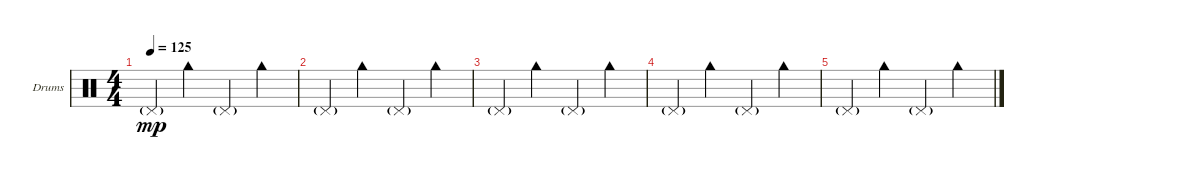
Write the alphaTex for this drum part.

\defaultSystemsLayout 4
\bracketExtendMode groupsimilarinstruments
\firstSystemTrackNameOrientation horizontal
\otherSystemsTrackNameOrientation horizontal
\track ("Drumkit" "Drums") {instrument percussion}
\staff {score}
\articulation defaults
\ts (4 4)
\tempo 125
\clef neutral
\ks c "Pedal Hi-Hat (hit)"{g}.4{dy mp} "Cowbell high (hit)".4 "Pedal Hi-Hat (hit)"{g}.4 "Cowbell high (hit)".4
|
"Pedal Hi-Hat (hit)"{g}.4 "Cowbell high (hit)".4 "Pedal Hi-Hat (hit)"{g}.4 "Cowbell high (hit)".4 |
"Pedal Hi-Hat (hit)"{g}.4 "Cowbell high (hit)".4 "Pedal Hi-Hat (hit)"{g}.4 "Cowbell high (hit)".4 |
"Pedal Hi-Hat (hit)"{g}.4 "Cowbell high (hit)".4 "Pedal Hi-Hat (hit)"{g}.4 "Cowbell high (hit)".4 |
"Pedal Hi-Hat (hit)"{g}.4 "Cowbell high (hit)".4 "Pedal Hi-Hat (hit)"{g}.4 "Cowbell high (hit)".4
